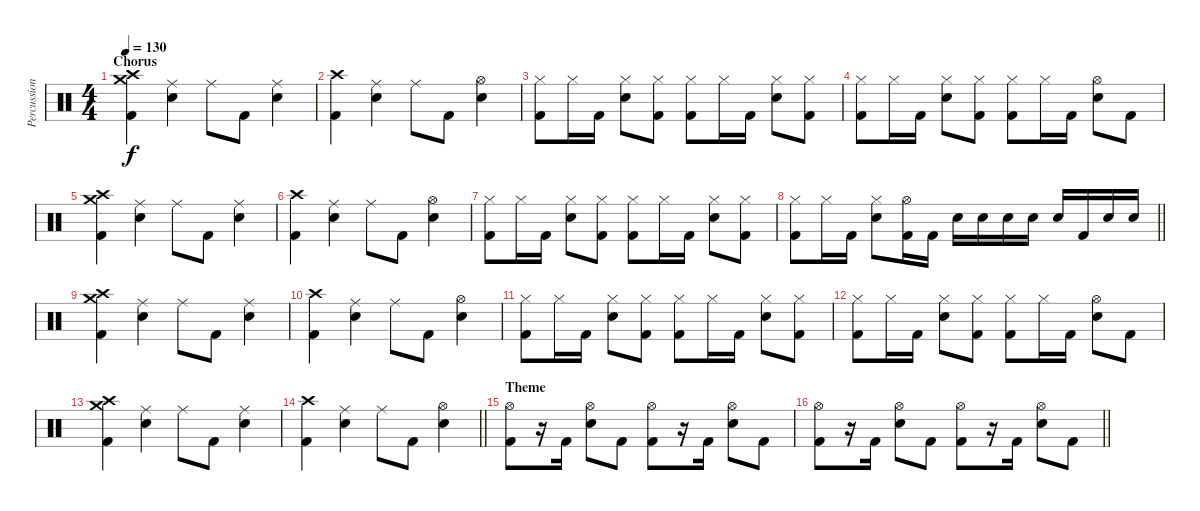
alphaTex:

\track ("Percussion" "Percussion") {instrument percussion}
\staff {score}
\articulation defaults
\ts (4 4)
\section ("" "Chorus")
\tempo 130
\clef neutral
\ks c
("Crash high (hit)" "Crash medium (hit)" "Kick (hit) 2").4{dy f} ("Ride (middle)" "Snare (hit) 2").4 "Ride (middle)".8 "Kick (hit) 2".8 ("Ride (middle)" "Snare (hit) 2").4 |
("Crash high (hit)" "Kick (hit) 2").4 ("Ride (middle)" "Snare (hit) 2").4 "Ride (middle)".8 "Kick (hit) 2".8 ("Hi-Hat (open)" "Snare (hit) 2").4 |
("Hi-Hat (closed)" "Kick (hit) 2").8 "Hi-Hat (closed)".16 "Kick (hit) 2".16 ("Hi-Hat (closed)" "Snare (hit) 2").8 ("Hi-Hat (closed)" "Kick (hit) 2").8 ("Hi-Hat (closed)" "Kick (hit) 2").8 "Hi-Hat (closed)".16 "Kick (hit) 2".16 ("Hi-Hat (closed)" "Snare (hit) 2").8 ("Hi-Hat (closed)" "Kick (hit) 2").8 |
("Hi-Hat (closed)" "Kick (hit) 2").8 "Hi-Hat (closed)".16 "Kick (hit) 2".16 ("Hi-Hat (closed)" "Snare (hit) 2").8 ("Hi-Hat (closed)" "Kick (hit) 2").8 ("Hi-Hat (closed)" "Kick (hit) 2").8 "Hi-Hat (closed)".16 "Kick (hit) 2".16 ("Hi-Hat (open)" "Snare (hit) 2").8 "Kick (hit) 2".8 |
("Crash high (hit)" "Crash medium (hit)" "Kick (hit) 2").4 ("Ride (middle)" "Snare (hit) 2").4 "Ride (middle)".8 "Kick (hit) 2".8 ("Ride (middle)" "Snare (hit) 2").4 |
("Crash high (hit)" "Kick (hit) 2").4 ("Ride (middle)" "Snare (hit) 2").4 "Ride (middle)".8 "Kick (hit) 2".8 ("Hi-Hat (open)" "Snare (hit) 2").4 |
("Hi-Hat (closed)" "Kick (hit) 2").8 "Hi-Hat (closed)".16 "Kick (hit) 2".16 ("Hi-Hat (closed)" "Snare (hit) 2").8 ("Hi-Hat (closed)" "Kick (hit) 2").8 ("Hi-Hat (closed)" "Kick (hit) 2").8 "Hi-Hat (closed)".16 "Kick (hit) 2".16 ("Hi-Hat (closed)" "Snare (hit) 2").8 ("Hi-Hat (closed)" "Kick (hit) 2").8 |
\barLineRight lightlight
("Hi-Hat (closed)" "Kick (hit) 2").8 "Hi-Hat (closed)".16 "Kick (hit) 2".16 ("Hi-Hat (closed)" "Snare (hit) 2").8 ("Hi-Hat (open)" "Kick (hit) 2").16 "Kick (hit) 2".16 "Snare (hit) 2".16 "Snare (hit) 2".16 "Snare (hit) 2".16 "Snare (hit) 2".16 "Snare (hit) 2".16 "Kick (hit) 2".16 "Snare (hit) 2".16 "Snare (hit) 2".16 |
("Crash high (hit)" "Crash medium (hit)" "Kick (hit) 2").4 ("Ride (middle)" "Snare (hit) 2").4 "Ride (middle)".8 "Kick (hit) 2".8 ("Ride (middle)" "Snare (hit) 2").4 |
("Crash high (hit)" "Kick (hit) 2").4 ("Ride (middle)" "Snare (hit) 2").4 "Ride (middle)".8 "Kick (hit) 2".8 ("Hi-Hat (open)" "Snare (hit) 2").4 |
("Hi-Hat (closed)" "Kick (hit) 2").8 "Hi-Hat (closed)".16 "Kick (hit) 2".16 ("Hi-Hat (closed)" "Snare (hit) 2").8 ("Hi-Hat (closed)" "Kick (hit) 2").8 ("Hi-Hat (closed)" "Kick (hit) 2").8 "Hi-Hat (closed)".16 "Kick (hit) 2".16 ("Hi-Hat (closed)" "Snare (hit) 2").8 ("Hi-Hat (closed)" "Kick (hit) 2").8 |
("Hi-Hat (closed)" "Kick (hit) 2").8 "Hi-Hat (closed)".16 "Kick (hit) 2".16 ("Hi-Hat (closed)" "Snare (hit) 2").8 ("Hi-Hat (closed)" "Kick (hit) 2").8 ("Hi-Hat (closed)" "Kick (hit) 2").8 "Hi-Hat (closed)".16 "Kick (hit) 2".16 ("Hi-Hat (open)" "Snare (hit) 2").8 "Kick (hit) 2".8 |
("Crash high (hit)" "Crash medium (hit)" "Kick (hit) 2").4 ("Ride (middle)" "Snare (hit) 2").4 "Ride (middle)".8 "Kick (hit) 2".8 ("Ride (middle)" "Snare (hit) 2").4 |
\barLineRight lightlight
("Crash high (hit)" "Kick (hit) 2").4 ("Ride (middle)" "Snare (hit) 2").4 "Ride (middle)".8 "Kick (hit) 2".8 ("Hi-Hat (open)" "Snare (hit) 2").4 |
\section ("" "Theme")
("Hi-Hat (open)" "Kick (hit) 2").8 r.16 "Kick (hit) 2".16 ("Hi-Hat (open)" "Snare (hit) 2").8 "Kick (hit) 2".8 ("Hi-Hat (open)" "Kick (hit) 2").8 r.16 "Kick (hit) 2".16 ("Hi-Hat (open)" "Snare (hit) 2").8 "Kick (hit) 2".8 |
\barLineRight lightlight
("Hi-Hat (open)" "Kick (hit) 2").8 r.16 "Kick (hit) 2".16 ("Hi-Hat (open)" "Snare (hit) 2").8 "Kick (hit) 2".8 ("Hi-Hat (open)" "Kick (hit) 2").8 r.16 "Kick (hit) 2".16 ("Hi-Hat (open)" "Snare (hit) 2").8 "Kick (hit) 2".8
